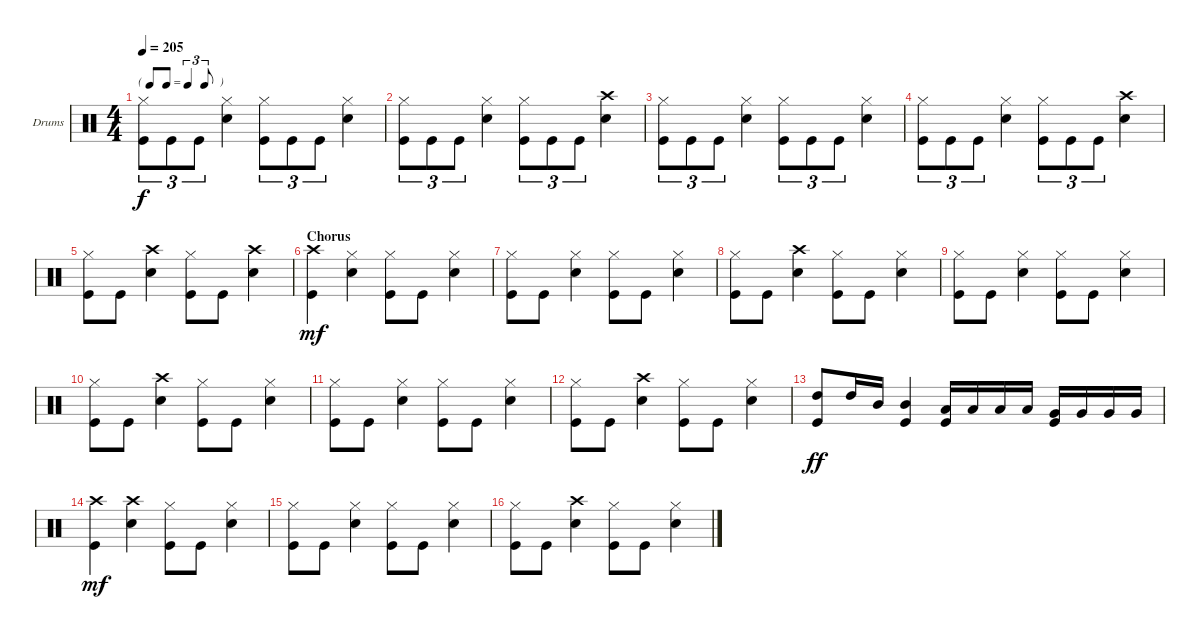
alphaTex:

\bracketExtendMode groupsimilarinstruments
\firstSystemTrackNameOrientation horizontal
\otherSystemsTrackNameOrientation horizontal
\track ("Drums" "Drums") {instrument percussion}
\staff {score}
\articulation defaults
\ts (4 4)
\tf triplet8th
\tempo 205
\clef neutral
\ks c
("Hi-Hat (closed)" "Kick (hit)").8{tu (3 2) dy f} "Kick (hit)".8{tu (3 2)} "Kick (hit)".8{tu (3 2)} ("Snare (hit) 2" "Hi-Hat (closed)").4 ("Hi-Hat (closed)" "Kick (hit)").8{tu (3 2)} "Kick (hit)".8{tu (3 2)} "Kick (hit)".8{tu (3 2)} ("Hi-Hat (closed)" "Snare (hit) 2").4 |
("Hi-Hat (closed)" "Kick (hit)").8{tu (3 2)} "Kick (hit)".8{tu (3 2)} "Kick (hit)".8{tu (3 2)} ("Snare (hit) 2" "Hi-Hat (closed)").4 ("Hi-Hat (closed)" "Kick (hit)").8{tu (3 2)} "Kick (hit)".8{tu (3 2)} "Kick (hit)".8{tu (3 2)} ("Crash high (hit)" "Snare (hit) 2").4 |
("Hi-Hat (closed)" "Kick (hit)").8{tu (3 2)} "Kick (hit)".8{tu (3 2)} "Kick (hit)".8{tu (3 2)} ("Snare (hit) 2" "Hi-Hat (closed)").4 ("Hi-Hat (closed)" "Kick (hit)").8{tu (3 2)} "Kick (hit)".8{tu (3 2)} "Kick (hit)".8{tu (3 2)} ("Hi-Hat (closed)" "Snare (hit) 2").4 |
("Hi-Hat (closed)" "Kick (hit)").8{tu (3 2)} "Kick (hit)".8{tu (3 2)} "Kick (hit)".8{tu (3 2)} ("Snare (hit) 2" "Hi-Hat (closed)").4 ("Hi-Hat (closed)" "Kick (hit)").8{tu (3 2)} "Kick (hit)".8{tu (3 2)} "Kick (hit)".8{tu (3 2)} ("Crash high (hit)" "Snare (hit) 2").4 |
("Hi-Hat (closed)" "Kick (hit)").8 "Kick (hit)".8 ("Crash high (hit)" "Snare (hit) 2").4 ("Hi-Hat (closed)" "Kick (hit)").8 "Kick (hit)".8 ("Crash high (hit)" "Snare (hit) 2").4 |
\section ("" "Chorus")
("Kick (hit)" "Crash high (hit)").4{dy mf} ("Hi-Hat (closed)" "Snare (hit) 2").4 ("Hi-Hat (closed)" "Kick (hit)").8 "Kick (hit)".8 ("Snare (hit) 2" "Hi-Hat (closed)").4 |
("Kick (hit)" "Hi-Hat (closed)").8 "Kick (hit)".8 ("Snare (hit) 2" "Hi-Hat (closed)").4 ("Kick (hit)" "Hi-Hat (closed)").8 "Kick (hit)".8 ("Snare (hit) 2" "Hi-Hat (closed)").4 |
("Kick (hit)" "Hi-Hat (closed)").8 "Kick (hit)".8 ("Crash high (hit)" "Snare (hit) 2").4 ("Kick (hit)" "Hi-Hat (closed)").8 "Kick (hit)".8 ("Snare (hit) 2" "Hi-Hat (closed)").4 |
("Kick (hit)" "Hi-Hat (closed)").8 "Kick (hit)".8 ("Snare (hit) 2" "Hi-Hat (closed)").4 ("Kick (hit)" "Hi-Hat (closed)").8 "Kick (hit)".8 ("Snare (hit) 2" "Hi-Hat (closed)").4 |
("Kick (hit)" "Hi-Hat (closed)").8 "Kick (hit)".8 ("Crash high (hit)" "Snare (hit) 2").4 ("Kick (hit)" "Hi-Hat (closed)").8 "Kick (hit)".8 ("Snare (hit) 2" "Hi-Hat (closed)").4 |
("Kick (hit)" "Hi-Hat (closed)").8 "Kick (hit)".8 ("Snare (hit) 2" "Hi-Hat (closed)").4 ("Kick (hit)" "Hi-Hat (closed)").8 "Kick (hit)".8 ("Snare (hit) 2" "Hi-Hat (closed)").4 |
("Kick (hit)" "Hi-Hat (closed)").8 "Kick (hit)".8 ("Crash high (hit)" "Snare (hit) 2").4 ("Kick (hit)" "Hi-Hat (closed)").8 "Kick (hit)".8 ("Snare (hit) 2" "Hi-Hat (closed)").4 |
("High Tom (hit)" "Kick (hit)").8{dy ff} "High Tom (hit)".16 "Mid Tom (hit)".16 ("Mid Tom (hit)" "Kick (hit)").4 ("Low Tom (hit)" "Kick (hit)").16 "Low Tom (hit)".16 "Low Tom (hit)".16 "Low Tom (hit)".16 ("Very Low Tom (hit)" "Kick (hit)").16 "Very Low Tom (hit)".16 "Very Low Tom (hit)".16 "Very Low Tom (hit)".16 |
("Kick (hit)" "Crash high (hit)").4{dy mf} ("Snare (hit) 2" "Crash high (hit)").4 ("Hi-Hat (closed)" "Kick (hit)").8 "Kick (hit)".8 ("Hi-Hat (closed)" "Snare (hit) 2").4 |
("Kick (hit)" "Hi-Hat (closed)").8 "Kick (hit)".8 ("Snare (hit) 2" "Hi-Hat (closed)").4 ("Kick (hit)" "Hi-Hat (closed)").8 "Kick (hit)".8 ("Snare (hit) 2" "Hi-Hat (closed)").4 |
("Kick (hit)" "Hi-Hat (closed)").8 "Kick (hit)".8 ("Crash high (hit)" "Snare (hit) 2").4 ("Kick (hit)" "Hi-Hat (closed)").8 "Kick (hit)".8 ("Snare (hit) 2" "Hi-Hat (closed)").4
